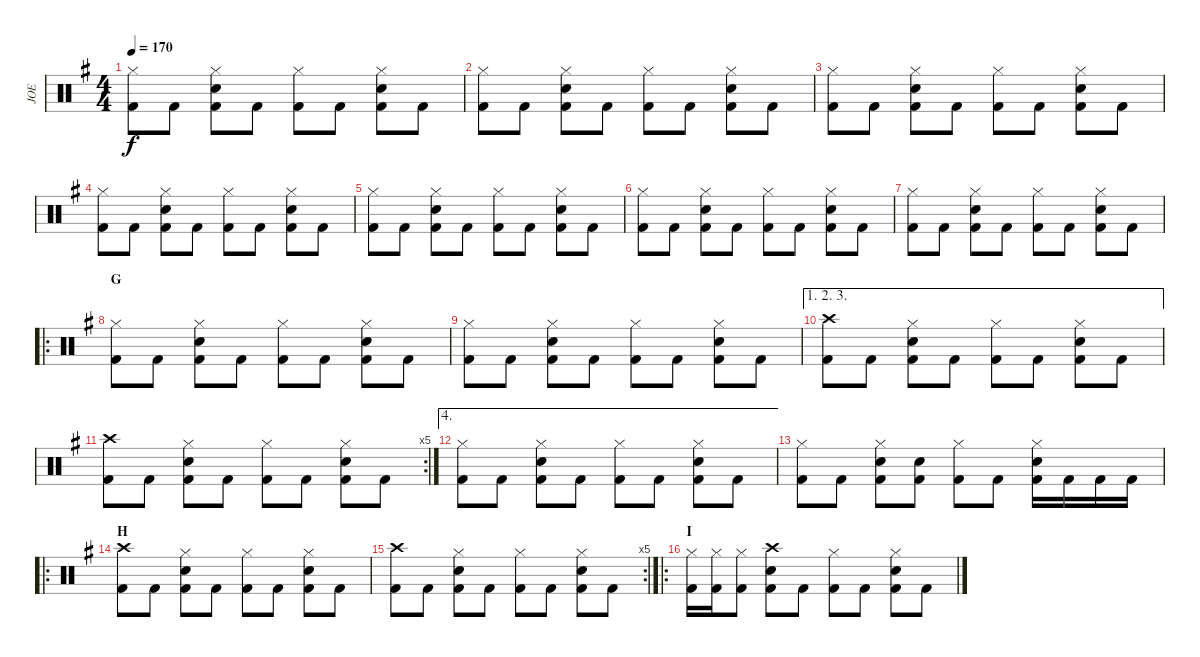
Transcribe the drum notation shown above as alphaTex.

\track ("JOE" "JOE") {instrument percussion}
\staff {score}
\articulation defaults
\ts (4 4)
\tempo 170
\clef neutral
\ks eminor
("Hi-Hat (closed)" "Kick (hit) 2").8{dy f} "Kick (hit) 2".8 ("Hi-Hat (closed)" "Snare (hit) 2" "Kick (hit) 2").8 "Kick (hit) 2".8 ("Hi-Hat (closed)" "Kick (hit) 2").8 "Kick (hit) 2".8 ("Hi-Hat (closed)" "Snare (hit) 2" "Kick (hit) 2").8 "Kick (hit) 2".8 |
("Hi-Hat (closed)" "Kick (hit) 2").8 "Kick (hit) 2".8 ("Hi-Hat (closed)" "Snare (hit) 2" "Kick (hit) 2").8 "Kick (hit) 2".8 ("Hi-Hat (closed)" "Kick (hit) 2").8 "Kick (hit) 2".8 ("Hi-Hat (closed)" "Snare (hit) 2" "Kick (hit) 2").8 "Kick (hit) 2".8 |
("Hi-Hat (closed)" "Kick (hit) 2").8 "Kick (hit) 2".8 ("Hi-Hat (closed)" "Snare (hit) 2" "Kick (hit) 2").8 "Kick (hit) 2".8 ("Hi-Hat (closed)" "Kick (hit) 2").8 "Kick (hit) 2".8 ("Hi-Hat (closed)" "Snare (hit) 2" "Kick (hit) 2").8 "Kick (hit) 2".8 |
("Hi-Hat (closed)" "Kick (hit) 2").8 "Kick (hit) 2".8 ("Hi-Hat (closed)" "Snare (hit) 2" "Kick (hit) 2").8 "Kick (hit) 2".8 ("Hi-Hat (closed)" "Kick (hit) 2").8 "Kick (hit) 2".8 ("Hi-Hat (closed)" "Snare (hit) 2" "Kick (hit) 2").8 "Kick (hit) 2".8 |
("Hi-Hat (closed)" "Kick (hit) 2").8 "Kick (hit) 2".8 ("Hi-Hat (closed)" "Snare (hit) 2" "Kick (hit) 2").8 "Kick (hit) 2".8 ("Hi-Hat (closed)" "Kick (hit) 2").8 "Kick (hit) 2".8 ("Hi-Hat (closed)" "Snare (hit) 2" "Kick (hit) 2").8 "Kick (hit) 2".8 |
("Hi-Hat (closed)" "Kick (hit) 2").8 "Kick (hit) 2".8 ("Hi-Hat (closed)" "Snare (hit) 2" "Kick (hit) 2").8 "Kick (hit) 2".8 ("Hi-Hat (closed)" "Kick (hit) 2").8 "Kick (hit) 2".8 ("Hi-Hat (closed)" "Snare (hit) 2" "Kick (hit) 2").8 "Kick (hit) 2".8 |
("Hi-Hat (closed)" "Kick (hit) 2").8 "Kick (hit) 2".8 ("Hi-Hat (closed)" "Snare (hit) 2" "Kick (hit) 2").8 "Kick (hit) 2".8 ("Hi-Hat (closed)" "Kick (hit) 2").8 "Kick (hit) 2".8 ("Hi-Hat (closed)" "Snare (hit) 2" "Kick (hit) 2").8 "Kick (hit) 2".8 |
\ro
\section ("" "G")
("Hi-Hat (closed)" "Kick (hit) 2").8 "Kick (hit) 2".8 ("Hi-Hat (closed)" "Snare (hit) 2" "Kick (hit) 2").8 "Kick (hit) 2".8 ("Hi-Hat (closed)" "Kick (hit) 2").8 "Kick (hit) 2".8 ("Hi-Hat (closed)" "Snare (hit) 2" "Kick (hit) 2").8 "Kick (hit) 2".8 |
("Hi-Hat (closed)" "Kick (hit) 2").8 "Kick (hit) 2".8 ("Hi-Hat (closed)" "Snare (hit) 2" "Kick (hit) 2").8 "Kick (hit) 2".8 ("Hi-Hat (closed)" "Kick (hit) 2").8 "Kick (hit) 2".8 ("Hi-Hat (closed)" "Snare (hit) 2" "Kick (hit) 2").8 "Kick (hit) 2".8 |
\ae (1 2 3)
("Crash high (hit)" "Kick (hit) 2").8 "Kick (hit) 2".8 ("Hi-Hat (closed)" "Snare (hit) 2" "Kick (hit) 2").8 "Kick (hit) 2".8 ("Hi-Hat (closed)" "Kick (hit) 2").8 "Kick (hit) 2".8 ("Hi-Hat (closed)" "Snare (hit) 2" "Kick (hit) 2").8 "Kick (hit) 2".8 |
\rc 5
("Crash high (hit)" "Kick (hit) 2").8 "Kick (hit) 2".8 ("Hi-Hat (closed)" "Snare (hit) 2" "Kick (hit) 2").8 "Kick (hit) 2".8 ("Hi-Hat (closed)" "Kick (hit) 2").8 "Kick (hit) 2".8 ("Hi-Hat (closed)" "Snare (hit) 2" "Kick (hit) 2").8 "Kick (hit) 2".8 |
\ae 4
("Hi-Hat (closed)" "Kick (hit) 2").8 "Kick (hit) 2".8 ("Hi-Hat (closed)" "Snare (hit) 2" "Kick (hit) 2").8 "Kick (hit) 2".8 ("Hi-Hat (closed)" "Kick (hit) 2").8 "Kick (hit) 2".8 ("Hi-Hat (closed)" "Snare (hit) 2" "Kick (hit) 2").8 "Kick (hit) 2".8 |
("Hi-Hat (closed)" "Kick (hit) 2").8 "Kick (hit) 2".8 ("Hi-Hat (closed)" "Snare (hit) 2" "Kick (hit) 2").8 ("Snare (hit) 2" "Kick (hit) 2").8 ("Hi-Hat (closed)" "Kick (hit) 2").8 "Kick (hit) 2".8 ("Hi-Hat (closed)" "Snare (hit) 2" "Kick (hit) 2").16 "Kick (hit) 2".16 "Kick (hit) 2".16 "Kick (hit) 2".16 |
\ro
\section ("" "H")
("Crash high (hit)" "Kick (hit) 2").8 "Kick (hit) 2".8 ("Hi-Hat (closed)" "Snare (hit) 2" "Kick (hit) 2").8 "Kick (hit) 2".8 ("Hi-Hat (closed)" "Kick (hit) 2").8 "Kick (hit) 2".8 ("Hi-Hat (closed)" "Snare (hit) 2" "Kick (hit) 2").8 "Kick (hit) 2".8 |
\rc 5
("Crash high (hit)" "Kick (hit) 2").8 "Kick (hit) 2".8 ("Hi-Hat (closed)" "Snare (hit) 2" "Kick (hit) 2").8 "Kick (hit) 2".8 ("Hi-Hat (closed)" "Kick (hit) 2").8 "Kick (hit) 2".8 ("Hi-Hat (closed)" "Snare (hit) 2" "Kick (hit) 2").8 "Kick (hit) 2".8 |
\ro
\section ("" "I")
("Hi-Hat (closed)" "Kick (hit) 2").16 ("Hi-Hat (closed)" "Kick (hit) 2").16 ("Hi-Hat (closed)" "Kick (hit) 2").8 ("Crash high (hit)" "Snare (hit) 2" "Kick (hit) 2").8 "Kick (hit) 2".8 ("Hi-Hat (closed)" "Kick (hit) 2").8 "Kick (hit) 2".8 ("Hi-Hat (closed)" "Snare (hit) 2" "Kick (hit) 2").8 "Kick (hit) 2".8
